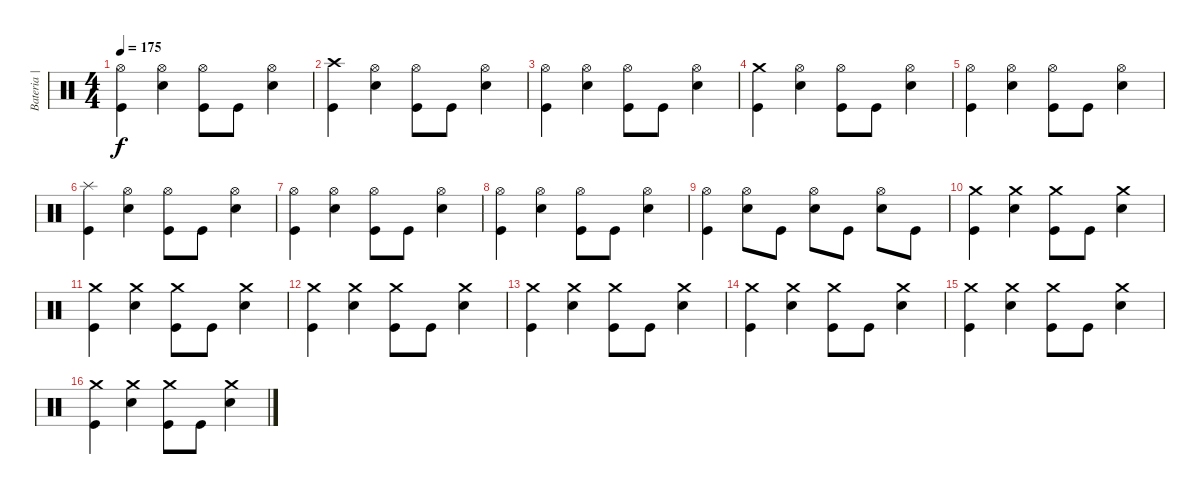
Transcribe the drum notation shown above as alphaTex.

\track ("Bateria | Fabinho" "Bateria | ") {instrument percussion}
\staff {score}
\articulation defaults
\ts (4 4)
\tempo 175
\clef neutral
\ks c
("Hi-Hat (open)" "Kick (hit)").4{dy f} ("Hi-Hat (open)" "Snare (hit) 2").4 ("Hi-Hat (open)" "Kick (hit)").8 "Kick (hit)".8 ("Hi-Hat (open)" "Snare (hit) 2").4 |
("Crash high (hit)" "Kick (hit)").4 ("Hi-Hat (open)" "Snare (hit) 2").4 ("Hi-Hat (open)" "Kick (hit)").8 "Kick (hit)".8 ("Hi-Hat (open)" "Snare (hit) 2").4 |
("Hi-Hat (open)" "Kick (hit)").4 ("Hi-Hat (open)" "Snare (hit) 2").4 ("Hi-Hat (open)" "Kick (hit)").8 "Kick (hit)".8 ("Hi-Hat (open)" "Snare (hit) 2").4 |
("Crash medium (hit)" "Kick (hit)").4 ("Hi-Hat (open)" "Snare (hit) 2").4 ("Hi-Hat (open)" "Kick (hit)").8 "Kick (hit)".8 ("Hi-Hat (open)" "Snare (hit) 2").4 |
("Hi-Hat (open)" "Kick (hit)").4 ("Hi-Hat (open)" "Snare (hit) 2").4 ("Hi-Hat (open)" "Kick (hit)").8 "Kick (hit)".8 ("Hi-Hat (open)" "Snare (hit) 2").4 |
("Splash (hit)" "Kick (hit)").4 ("Hi-Hat (open)" "Snare (hit) 2").4 ("Hi-Hat (open)" "Kick (hit)").8 "Kick (hit)".8 ("Hi-Hat (open)" "Snare (hit) 2").4 |
("Hi-Hat (open)" "Kick (hit)").4 ("Hi-Hat (open)" "Snare (hit) 2").4 ("Hi-Hat (open)" "Kick (hit)").8 "Kick (hit)".8 ("Hi-Hat (open)" "Snare (hit) 2").4 |
("Hi-Hat (open)" "Kick (hit)").4 ("Hi-Hat (open)" "Snare (hit) 2").4 ("Hi-Hat (open)" "Kick (hit)").8 "Kick (hit)".8 ("Hi-Hat (open)" "Snare (hit) 2").4 |
("Hi-Hat (open)" "Kick (hit)").4 ("Hi-Hat (open)" "Snare (hit) 2").8 "Kick (hit)".8 ("Hi-Hat (open)" "Snare (hit) 2").8 "Kick (hit)".8 ("Hi-Hat (open)" "Snare (hit) 2").8 "Kick (hit)".8 |
("Crash medium (hit)" "Kick (hit)").4 ("Crash medium (hit)" "Snare (hit) 2").4 ("Crash medium (hit)" "Kick (hit)").8 "Kick (hit)".8 ("Crash medium (hit)" "Snare (hit) 2").4 |
("Crash medium (hit)" "Kick (hit)").4 ("Crash medium (hit)" "Snare (hit) 2").4 ("Crash medium (hit)" "Kick (hit)").8 "Kick (hit)".8 ("Crash medium (hit)" "Snare (hit) 2").4 |
("Crash medium (hit)" "Kick (hit)").4 ("Crash medium (hit)" "Snare (hit) 2").4 ("Crash medium (hit)" "Kick (hit)").8 "Kick (hit)".8 ("Crash medium (hit)" "Snare (hit) 2").4 |
("Crash medium (hit)" "Kick (hit)").4 ("Crash medium (hit)" "Snare (hit) 2").4 ("Crash medium (hit)" "Kick (hit)").8 "Kick (hit)".8 ("Crash medium (hit)" "Snare (hit) 2").4 |
("Crash medium (hit)" "Kick (hit)").4 ("Crash medium (hit)" "Snare (hit) 2").4 ("Crash medium (hit)" "Kick (hit)").8 "Kick (hit)".8 ("Crash medium (hit)" "Snare (hit) 2").4 |
("Crash medium (hit)" "Kick (hit)").4 ("Crash medium (hit)" "Snare (hit) 2").4 ("Crash medium (hit)" "Kick (hit)").8 "Kick (hit)".8 ("Crash medium (hit)" "Snare (hit) 2").4 |
("Crash medium (hit)" "Kick (hit)").4 ("Crash medium (hit)" "Snare (hit) 2").4 ("Crash medium (hit)" "Kick (hit)").8 "Kick (hit)".8 ("Crash medium (hit)" "Snare (hit) 2").4
